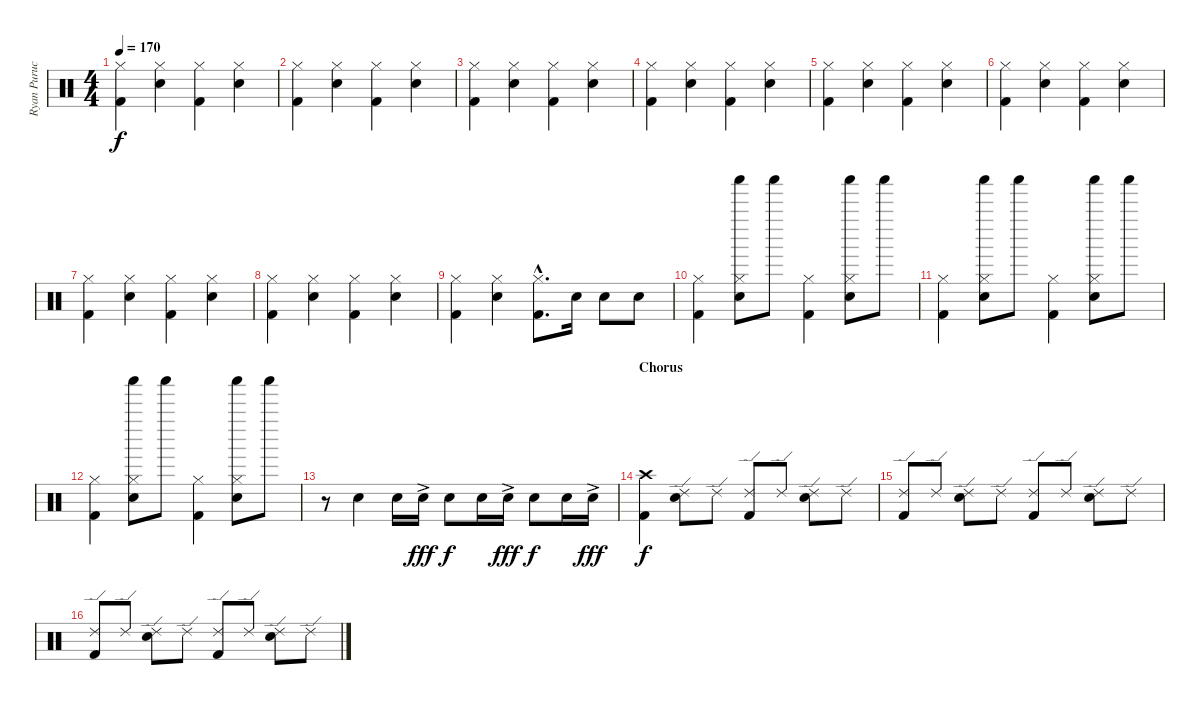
\track ("Ryan Purucker" "Ryan Puruc") {instrument percussion}
\staff {score}
\articulation defaults
\ts (4 4)
\tempo 170
\clef neutral
\ks c
("Hi-Hat (closed)" "Kick (hit) 2").4{dy f} ("Hi-Hat (closed)" "Snare (hit) 2").4 ("Hi-Hat (closed)" "Kick (hit) 2").4 ("Hi-Hat (closed)" "Snare (hit) 2").4 |
("Hi-Hat (closed)" "Kick (hit) 2").4 ("Hi-Hat (closed)" "Snare (hit) 2").4 ("Hi-Hat (closed)" "Kick (hit) 2").4 ("Hi-Hat (closed)" "Snare (hit) 2").4 |
("Hi-Hat (closed)" "Kick (hit) 2").4 ("Hi-Hat (closed)" "Snare (hit) 2").4 ("Hi-Hat (closed)" "Kick (hit) 2").4 ("Hi-Hat (closed)" "Snare (hit) 2").4 |
("Hi-Hat (closed)" "Kick (hit) 2").4 ("Hi-Hat (closed)" "Snare (hit) 2").4 ("Hi-Hat (closed)" "Kick (hit) 2").4 ("Hi-Hat (closed)" "Snare (hit) 2").4 |
("Hi-Hat (closed)" "Kick (hit) 2").4 ("Hi-Hat (closed)" "Snare (hit) 2").4 ("Hi-Hat (closed)" "Kick (hit) 2").4 ("Hi-Hat (closed)" "Snare (hit) 2").4 |
("Hi-Hat (closed)" "Kick (hit) 2").4 ("Hi-Hat (closed)" "Snare (hit) 2").4 ("Hi-Hat (closed)" "Kick (hit) 2").4 ("Hi-Hat (closed)" "Snare (hit) 2").4 |
("Hi-Hat (closed)" "Kick (hit) 2").4 ("Hi-Hat (closed)" "Snare (hit) 2").4 ("Hi-Hat (closed)" "Kick (hit) 2").4 ("Hi-Hat (closed)" "Snare (hit) 2").4 |
("Hi-Hat (closed)" "Kick (hit) 2").4 ("Hi-Hat (closed)" "Snare (hit) 2").4 ("Hi-Hat (closed)" "Kick (hit) 2").4 ("Hi-Hat (closed)" "Snare (hit) 2").4 |
("Hi-Hat (closed)" "Kick (hit) 2").4 ("Hi-Hat (closed)" "Snare (hit) 2").4 ("Hi-Hat (closed)"{hac} "Kick (hit) 2"{hac}).8{d} "Electric Snare (hit)".16 "Electric Snare (hit)".8 "Electric Snare (hit)".8 |
("Hi-Hat (closed)" "Kick (hit) 2").4 ("Shaker (hit)" "Hi-Hat (closed)" "Snare (hit) 2").8 "Shaker (hit)".8 ("Hi-Hat (closed)" "Kick (hit) 2").4 ("Shaker (hit)" "Hi-Hat (closed)" "Snare (hit) 2").8 "Shaker (hit)".8 |
("Hi-Hat (closed)" "Kick (hit) 2").4 ("Shaker (hit)" "Hi-Hat (closed)" "Snare (hit) 2").8 "Shaker (hit)".8 ("Hi-Hat (closed)" "Kick (hit) 2").4 ("Shaker (hit)" "Hi-Hat (closed)" "Snare (hit) 2").8 "Shaker (hit)".8 |
("Kick (hit) 2" "Hi-Hat (closed)").4 ("Snare (hit) 2" "Hi-Hat (closed)" "Shaker (hit)").8 "Shaker (hit)".8 ("Kick (hit) 2" "Hi-Hat (closed)").4 ("Snare (hit) 2" "Hi-Hat (closed)" "Shaker (hit)").8 "Shaker (hit)".8 |
r.8 "Electric Snare (hit)".4 "Electric Snare (hit)".16 "Electric Snare (hit)"{ac}.16{dy fff} "Electric Snare (hit)".8{dy f} "Electric Snare (hit)".16 "Electric Snare (hit)"{ac}.16{dy fff} "Electric Snare (hit)".8{dy f} "Electric Snare (hit)".16 "Electric Snare (hit)"{ac}.16{dy fff} |
\section ("" "Chorus")
("Crash high (hit)" "Kick (hit) 2").4{dy f} ("Ride (edge) 2" "Snare (hit) 2").8 "Ride (edge) 2".8 ("Ride (edge) 2" "Kick (hit) 2").8 "Ride (edge) 2".8 ("Ride (edge) 2" "Snare (hit) 2").8 "Ride (edge) 2".8 |
("Ride (edge) 2" "Kick (hit) 2").8 "Ride (edge) 2".8 ("Ride (edge) 2" "Snare (hit) 2").8 "Ride (edge) 2".8 ("Ride (edge) 2" "Kick (hit) 2").8 "Ride (edge) 2".8 ("Ride (edge) 2" "Snare (hit) 2").8 "Ride (edge) 2".8 |
("Ride (edge) 2" "Kick (hit) 2").8 "Ride (edge) 2".8 ("Ride (edge) 2" "Snare (hit) 2").8 "Ride (edge) 2".8 ("Ride (edge) 2" "Kick (hit) 2").8 "Ride (edge) 2".8 ("Ride (edge) 2" "Snare (hit) 2").8 "Ride (edge) 2".8
